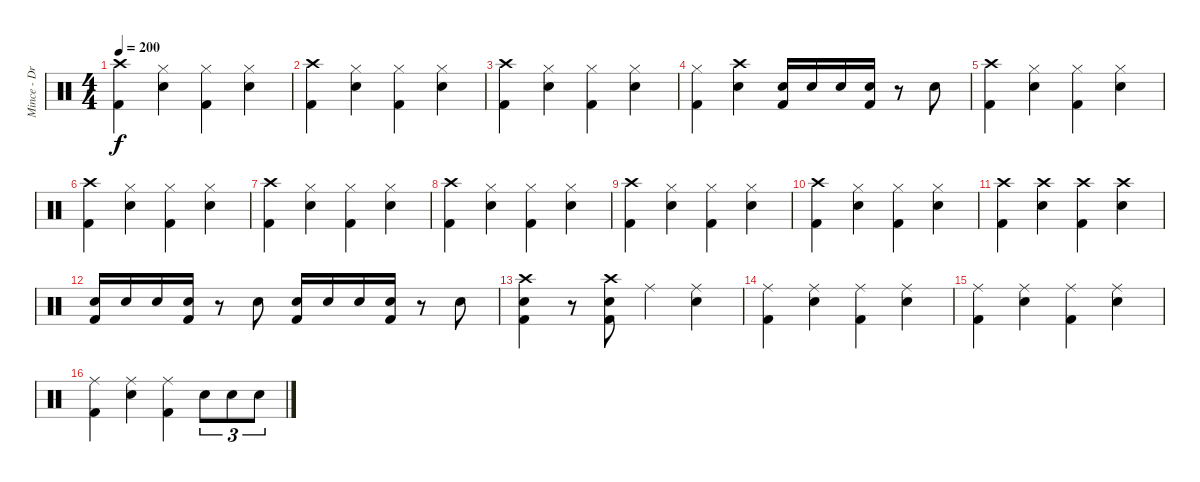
\track ("Mince - Drums" "Mince - Dr") {instrument percussion}
\staff {score}
\articulation defaults
\ts (4 4)
\tempo 200
\clef neutral
\ks c
("Crash high (hit)" "Kick (hit) 2").4{dy f} ("Hi-Hat (closed)" "Electric Snare (hit)").4 ("Hi-Hat (closed)" "Kick (hit) 2").4 ("Hi-Hat (closed)" "Electric Snare (hit)").4 |
("Crash high (hit)" "Kick (hit) 2").4 ("Hi-Hat (closed)" "Electric Snare (hit)").4 ("Hi-Hat (closed)" "Kick (hit) 2").4 ("Hi-Hat (closed)" "Electric Snare (hit)").4 |
("Crash high (hit)" "Kick (hit) 2").4 ("Hi-Hat (closed)" "Electric Snare (hit)").4 ("Hi-Hat (closed)" "Kick (hit) 2").4 ("Hi-Hat (closed)" "Electric Snare (hit)").4 |
("Hi-Hat (closed)" "Kick (hit) 2").4 ("Crash high (hit)" "Electric Snare (hit)").4 ("Electric Snare (hit)" "Kick (hit) 2").16 "Electric Snare (hit)".16 "Electric Snare (hit)".16 ("Electric Snare (hit)" "Kick (hit) 2").16 r.8 "Electric Snare (hit)".8 |
("Crash high (hit)" "Kick (hit) 2").4 ("Hi-Hat (closed)" "Electric Snare (hit)").4 ("Hi-Hat (closed)" "Kick (hit) 2").4 ("Hi-Hat (closed)" "Electric Snare (hit)").4 |
("Crash high (hit)" "Kick (hit) 2").4 ("Hi-Hat (closed)" "Electric Snare (hit)").4 ("Hi-Hat (closed)" "Kick (hit) 2").4 ("Hi-Hat (closed)" "Electric Snare (hit)").4 |
("Crash high (hit)" "Kick (hit) 2").4 ("Hi-Hat (closed)" "Electric Snare (hit)").4 ("Hi-Hat (closed)" "Kick (hit) 2").4 ("Hi-Hat (closed)" "Electric Snare (hit)").4 |
("Crash high (hit)" "Kick (hit) 2").4 ("Hi-Hat (closed)" "Electric Snare (hit)").4 ("Hi-Hat (closed)" "Kick (hit) 2").4 ("Hi-Hat (closed)" "Electric Snare (hit)").4 |
("Crash high (hit)" "Kick (hit) 2").4 ("Hi-Hat (closed)" "Electric Snare (hit)").4 ("Hi-Hat (closed)" "Kick (hit) 2").4 ("Hi-Hat (closed)" "Electric Snare (hit)").4 |
("Crash high (hit)" "Kick (hit) 2").4 ("Hi-Hat (closed)" "Electric Snare (hit)").4 ("Hi-Hat (closed)" "Kick (hit) 2").4 ("Hi-Hat (closed)" "Electric Snare (hit)").4 |
("Crash high (hit)" "Kick (hit) 2").4 ("Crash high (hit)" "Electric Snare (hit)").4 ("Crash high (hit)" "Kick (hit) 2").4 ("Crash high (hit)" "Electric Snare (hit)").4 |
("Electric Snare (hit)" "Kick (hit) 2").16 "Electric Snare (hit)".16 "Electric Snare (hit)".16 ("Electric Snare (hit)" "Kick (hit) 2").16 r.8 "Electric Snare (hit)".8 ("Electric Snare (hit)" "Kick (hit) 2").16 "Electric Snare (hit)".16 "Electric Snare (hit)".16 ("Electric Snare (hit)" "Kick (hit) 2").16 r.8 "Electric Snare (hit)".8 |
("Crash high (hit)" "Electric Snare (hit)" "Kick (hit) 2").4 r.8 ("Crash high (hit)" "Electric Snare (hit)" "Kick (hit) 2").8 "Ride (middle)".4 ("Ride (middle)" "Electric Snare (hit)").4 |
("Ride (middle)" "Kick (hit) 2").4 ("Ride (middle)" "Electric Snare (hit)").4 ("Ride (middle)" "Kick (hit) 2").4 ("Ride (middle)" "Electric Snare (hit)").4 |
("Ride (middle)" "Kick (hit) 2").4 ("Ride (middle)" "Electric Snare (hit)").4 ("Ride (middle)" "Kick (hit) 2").4 ("Ride (middle)" "Electric Snare (hit)").4 |
("Ride (middle)" "Kick (hit) 2").4 ("Ride (middle)" "Electric Snare (hit)").4 ("Ride (middle)" "Kick (hit) 2").4 "Electric Snare (hit)".8{tu (3 2)} "Electric Snare (hit)".8{tu (3 2)} "Electric Snare (hit)".8{tu (3 2)}
